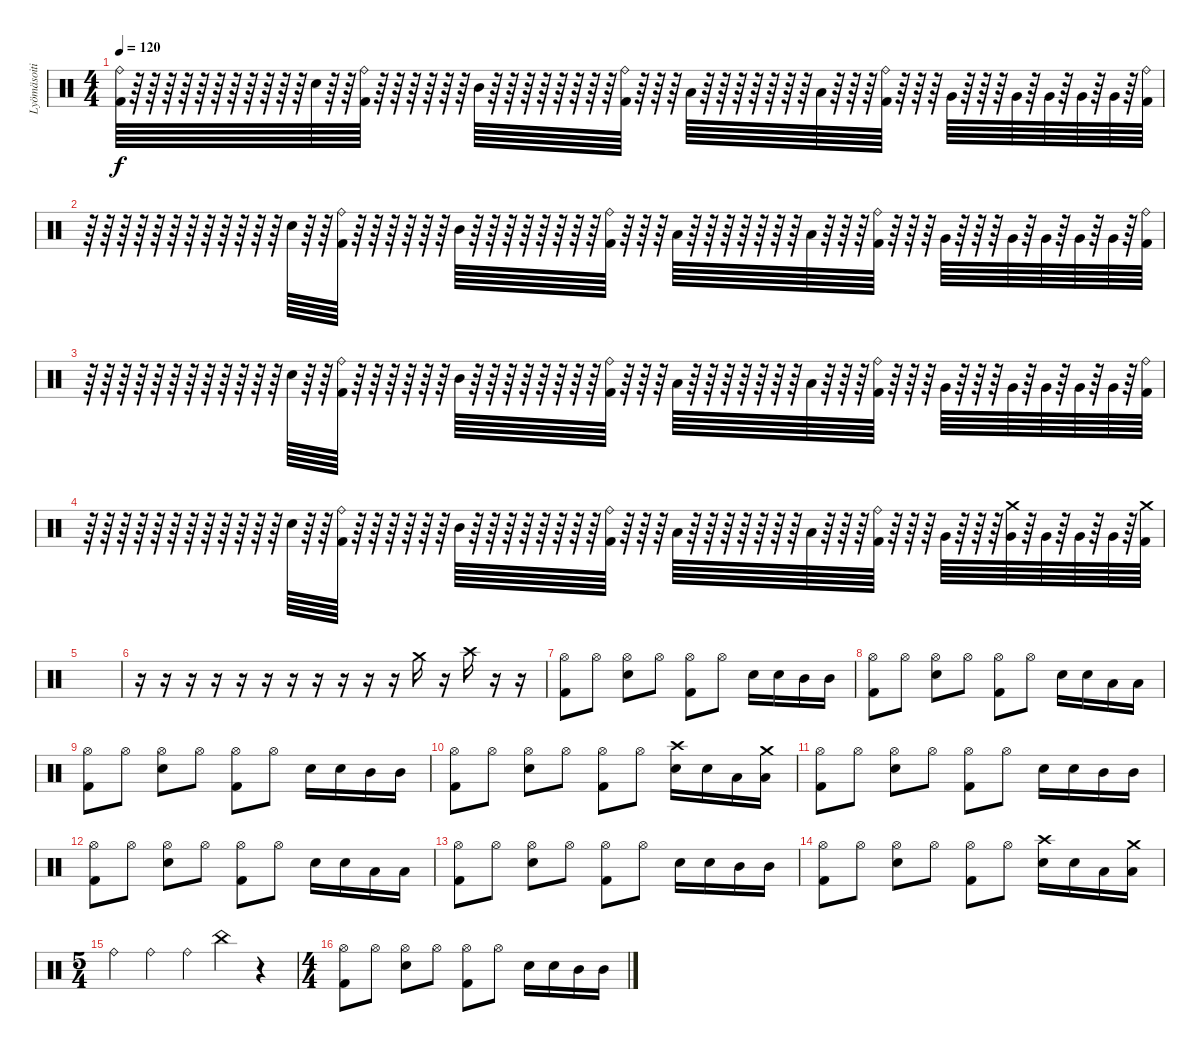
\track ("Lyömäsoitin" "Lyömäsoiti") {instrument percussion}
\staff {score}
\articulation defaults
\ts (4 4)
\tempo 120
\clef neutral
\ks c
("Ride (bell)" "Kick (hit) 2").64{dy f} r.64 r.64 r.64 r.64 r.64 r.64 r.64 r.64 r.64 r.64 r.64 "Snare (hit) 2".64 r.64 r.64 ("Ride (bell)" "Kick (hit) 2").64 r.64 r.64 r.64 r.64 r.64 r.64 "Mid Tom (hit)".64 r.64 r.64 r.64 r.64 r.64 r.64 r.64 r.64 ("Ride (bell)" "Kick (hit) 2").64 r.64 r.64 r.64 "Low Tom (hit)".64 r.64 r.64 r.64 r.64 r.64 r.64 r.64 "Low Tom (hit)".64 r.64 r.64 r.64 ("Ride (bell)" "Kick (hit) 2").64 r.64 r.64 r.64 "Very Low Tom (hit)".64 r.64 r.64 r.64 "Very Low Tom (hit)".64 r.64 "Very Low Tom (hit)".64 r.64 "Very Low Tom (hit)".64 r.64 "Very Low Tom (hit)".64 r.64 ("Ride (bell)" "Kick (hit) 2").64 |
r.64 r.64 r.64 r.64 r.64 r.64 r.64 r.64 r.64 r.64 r.64 r.64 "Snare (hit) 2".64 r.64 r.64 ("Ride (bell)" "Kick (hit) 2").64 r.64 r.64 r.64 r.64 r.64 r.64 "Mid Tom (hit)".64 r.64 r.64 r.64 r.64 r.64 r.64 r.64 r.64 ("Ride (bell)" "Kick (hit) 2").64 r.64 r.64 r.64 "Low Tom (hit)".64 r.64 r.64 r.64 r.64 r.64 r.64 r.64 "Low Tom (hit)".64 r.64 r.64 r.64 ("Ride (bell)" "Kick (hit) 2").64 r.64 r.64 r.64 "Very Low Tom (hit)".64 r.64 r.64 r.64 "Very Low Tom (hit)".64 r.64 "Very Low Tom (hit)".64 r.64 "Very Low Tom (hit)".64 r.64 "Very Low Tom (hit)".64 r.64 ("Ride (bell)" "Kick (hit) 2").64 |
r.64 r.64 r.64 r.64 r.64 r.64 r.64 r.64 r.64 r.64 r.64 r.64 "Snare (hit) 2".64 r.64 r.64 ("Ride (bell)" "Kick (hit) 2").64 r.64 r.64 r.64 r.64 r.64 r.64 "Mid Tom (hit)".64 r.64 r.64 r.64 r.64 r.64 r.64 r.64 r.64 ("Ride (bell)" "Kick (hit) 2").64 r.64 r.64 r.64 "Low Tom (hit)".64 r.64 r.64 r.64 r.64 r.64 r.64 r.64 "Low Tom (hit)".64 r.64 r.64 r.64 ("Ride (bell)" "Kick (hit) 2").64 r.64 r.64 r.64 "Very Low Tom (hit)".64 r.64 r.64 r.64 "Very Low Tom (hit)".64 r.64 "Very Low Tom (hit)".64 r.64 "Very Low Tom (hit)".64 r.64 "Very Low Tom (hit)".64 r.64 ("Ride (bell)" "Kick (hit) 2").64 |
r.64 r.64 r.64 r.64 r.64 r.64 r.64 r.64 r.64 r.64 r.64 r.64 "Snare (hit) 2".64 r.64 r.64 ("Ride (bell)" "Kick (hit) 2").64 r.64 r.64 r.64 r.64 r.64 r.64 "Mid Tom (hit)".64 r.64 r.64 r.64 r.64 r.64 r.64 r.64 r.64 ("Ride (bell)" "Kick (hit) 2").64 r.64 r.64 r.64 "Low Tom (hit)".64 r.64 r.64 r.64 r.64 r.64 r.64 r.64 "Low Tom (hit)".64 r.64 r.64 r.64 ("Ride (bell)" "Kick (hit) 2").64 r.64 r.64 r.64 "Very Low Tom (hit)".64 r.64 r.64 r.64 ("Crash medium (hit)" "Very Low Tom (hit)").64 r.64 "Very Low Tom (hit)".64 r.64 "Very Low Tom (hit)".64 r.64 "Very Low Tom (hit)".64 r.64 ("Crash medium (hit)" "Kick (hit) 2").64 |
|
r.16 r.16 r.16 r.16 r.16 r.16 r.16 r.16 r.16 r.16 r.16 "Crash medium (hit)".16 r.16 "Crash high (hit)".16 r.16 r.16 |
("Hi-Hat (open)" "Kick (hit) 2").8 "Hi-Hat (open)".8 ("Hi-Hat (open)" "Snare (hit) 2").8 "Hi-Hat (open)".8 ("Hi-Hat (open)" "Kick (hit) 2").8 "Hi-Hat (open)".8 "Snare (hit) 2".16 "Snare (hit) 2".16 "Mid Tom (hit)".16 "Mid Tom (hit)".16 |
("Hi-Hat (open)" "Kick (hit) 2").8 "Hi-Hat (open)".8 ("Hi-Hat (open)" "Snare (hit) 2").8 "Hi-Hat (open)".8 ("Hi-Hat (open)" "Kick (hit) 2").8 "Hi-Hat (open)".8 "Snare (hit) 2".16 "Snare (hit) 2".16 "Low Tom (hit)".16 "Low Tom (hit)".16 |
("Hi-Hat (open)" "Kick (hit) 2").8 "Hi-Hat (open)".8 ("Hi-Hat (open)" "Snare (hit) 2").8 "Hi-Hat (open)".8 ("Hi-Hat (open)" "Kick (hit) 2").8 "Hi-Hat (open)".8 "Snare (hit) 2".16 "Snare (hit) 2".16 "Mid Tom (hit)".16 "Mid Tom (hit)".16 |
("Hi-Hat (open)" "Kick (hit) 2").8 "Hi-Hat (open)".8 ("Hi-Hat (open)" "Snare (hit) 2").8 "Hi-Hat (open)".8 ("Hi-Hat (open)" "Kick (hit) 2").8 "Hi-Hat (open)".8 ("Snare (hit) 2" "Crash high (hit)").16 "Snare (hit) 2".16 "Low Tom (hit)".16 ("Low Tom (hit)" "Crash medium (hit)").16 |
("Hi-Hat (open)" "Kick (hit) 2").8 "Hi-Hat (open)".8 ("Hi-Hat (open)" "Snare (hit) 2").8 "Hi-Hat (open)".8 ("Hi-Hat (open)" "Kick (hit) 2").8 "Hi-Hat (open)".8 "Snare (hit) 2".16 "Snare (hit) 2".16 "Mid Tom (hit)".16 "Mid Tom (hit)".16 |
("Hi-Hat (open)" "Kick (hit) 2").8 "Hi-Hat (open)".8 ("Hi-Hat (open)" "Snare (hit) 2").8 "Hi-Hat (open)".8 ("Hi-Hat (open)" "Kick (hit) 2").8 "Hi-Hat (open)".8 "Snare (hit) 2".16 "Snare (hit) 2".16 "Low Tom (hit)".16 "Low Tom (hit)".16 |
("Hi-Hat (open)" "Kick (hit) 2").8 "Hi-Hat (open)".8 ("Hi-Hat (open)" "Snare (hit) 2").8 "Hi-Hat (open)".8 ("Hi-Hat (open)" "Kick (hit) 2").8 "Hi-Hat (open)".8 "Snare (hit) 2".16 "Snare (hit) 2".16 "Mid Tom (hit)".16 "Mid Tom (hit)".16 |
("Hi-Hat (open)" "Kick (hit) 2").8 "Hi-Hat (open)".8 ("Hi-Hat (open)" "Snare (hit) 2").8 "Hi-Hat (open)".8 ("Hi-Hat (open)" "Kick (hit) 2").8 "Hi-Hat (open)".8 ("Snare (hit) 2" "Crash high (hit)").16 "Snare (hit) 2".16 "Low Tom (hit)".16 ("Low Tom (hit)" "Crash medium (hit)").16 |
\ts (5 4)
"Ride (bell)".4 "Ride (bell)".4 "Ride (bell)".4 "China (hit)".4 r.4 |
\ts (4 4)
("Hi-Hat (open)" "Kick (hit) 2").8 "Hi-Hat (open)".8 ("Hi-Hat (open)" "Snare (hit) 2").8 "Hi-Hat (open)".8 ("Hi-Hat (open)" "Kick (hit) 2").8 "Hi-Hat (open)".8 "Snare (hit) 2".16 "Snare (hit) 2".16 "Mid Tom (hit)".16 "Mid Tom (hit)".16
